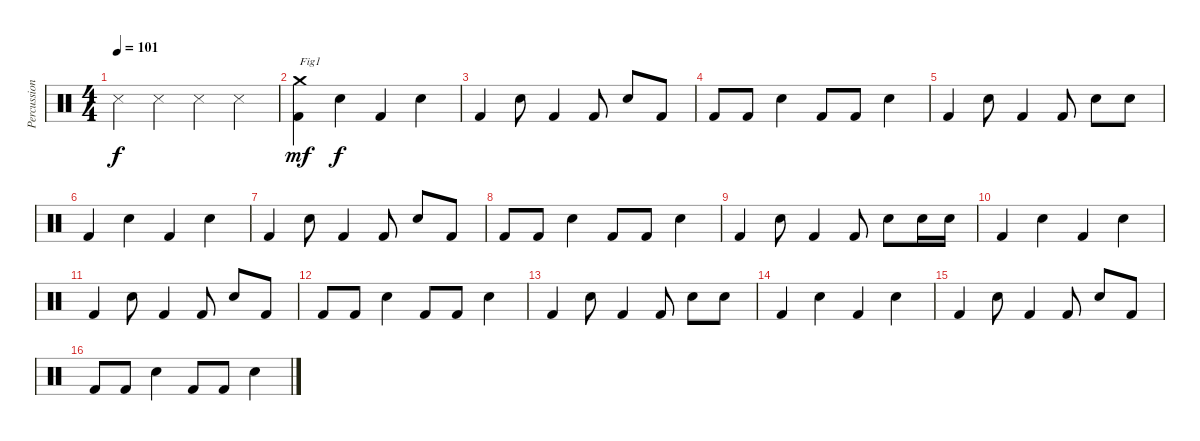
\track ("Percussions" "Percussion") {instrument percussion}
\staff {score}
\articulation defaults
\ts (4 4)
\tempo 101
\clef neutral
\ks c "Metronome (hit)".4{dy f} "Metronome (hit)".4 "Metronome (hit)".4 "Metronome (hit)".4
|
("Kick (hit) 2" "Crash medium (hit)").4{txt "Fig1" dy mf} "Snare (hit) 2".4{dy f} "Kick (hit) 2".4 "Snare (hit) 2".4 |
"Kick (hit) 2".4 "Snare (hit) 2".8 "Kick (hit) 2".4 "Kick (hit) 2".8 "Snare (hit) 2".8 "Kick (hit) 2".8 |
"Kick (hit) 2".8 "Kick (hit) 2".8 "Snare (hit) 2".4 "Kick (hit) 2".8 "Kick (hit) 2".8 "Snare (hit) 2".4 |
"Kick (hit) 2".4 "Snare (hit) 2".8 "Kick (hit) 2".4 "Kick (hit) 2".8 "Snare (hit) 2".8 "Snare (hit) 2".8 |
"Kick (hit) 2".4 "Snare (hit) 2".4 "Kick (hit) 2".4 "Snare (hit) 2".4 |
"Kick (hit) 2".4 "Snare (hit) 2".8 "Kick (hit) 2".4 "Kick (hit) 2".8 "Snare (hit) 2".8 "Kick (hit) 2".8 |
"Kick (hit) 2".8 "Kick (hit) 2".8 "Snare (hit) 2".4 "Kick (hit) 2".8 "Kick (hit) 2".8 "Snare (hit) 2".4 |
"Kick (hit) 2".4 "Snare (hit) 2".8 "Kick (hit) 2".4 "Kick (hit) 2".8 "Snare (hit) 2".8 "Snare (hit) 2".16 "Snare (hit) 2".16 |
"Kick (hit) 2".4 "Snare (hit) 2".4 "Kick (hit) 2".4 "Snare (hit) 2".4 |
"Kick (hit) 2".4 "Snare (hit) 2".8 "Kick (hit) 2".4 "Kick (hit) 2".8 "Snare (hit) 2".8 "Kick (hit) 2".8 |
"Kick (hit) 2".8 "Kick (hit) 2".8 "Snare (hit) 2".4 "Kick (hit) 2".8 "Kick (hit) 2".8 "Snare (hit) 2".4 |
"Kick (hit) 2".4 "Snare (hit) 2".8 "Kick (hit) 2".4 "Kick (hit) 2".8 "Snare (hit) 2".8 "Snare (hit) 2".8 |
"Kick (hit) 2".4 "Snare (hit) 2".4 "Kick (hit) 2".4 "Snare (hit) 2".4 |
"Kick (hit) 2".4 "Snare (hit) 2".8 "Kick (hit) 2".4 "Kick (hit) 2".8 "Snare (hit) 2".8 "Kick (hit) 2".8 |
"Kick (hit) 2".8 "Kick (hit) 2".8 "Snare (hit) 2".4 "Kick (hit) 2".8 "Kick (hit) 2".8 "Snare (hit) 2".4
